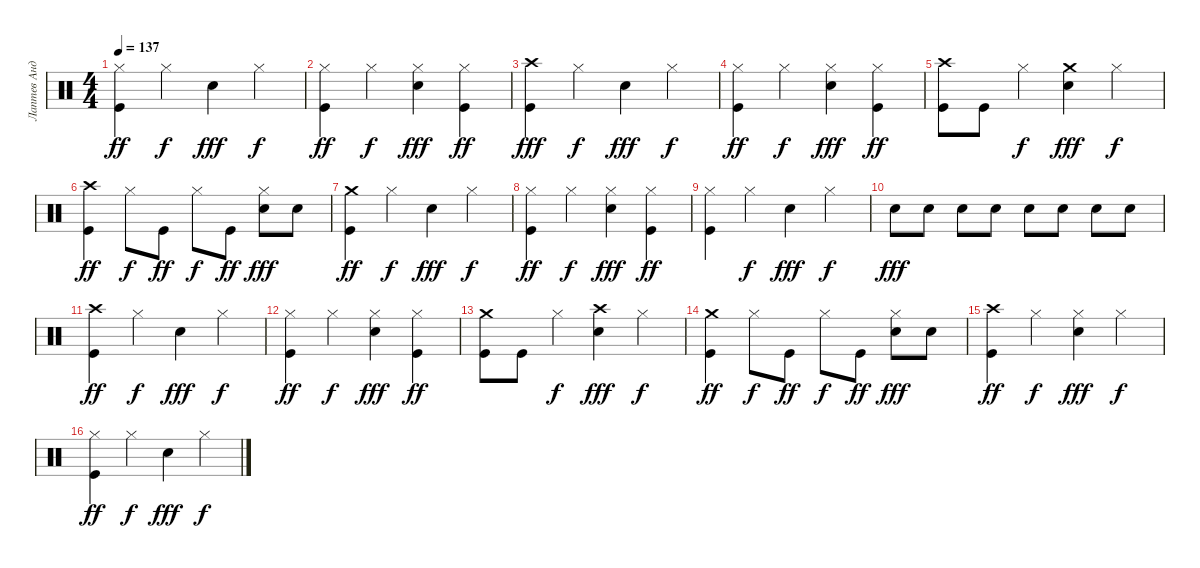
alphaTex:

\track ("Лаптев Андрей" "Лаптев Анд") {instrument percussion}
\staff {score}
\articulation defaults
\ts (4 4)
\tempo 137
\clef neutral
\ks c
("Hi-Hat (closed)" "Kick (hit)").4{dy ff} "Hi-Hat (closed)".4{dy f} "Electric Snare (hit)".4{dy fff} "Hi-Hat (closed)".4{dy f} |
("Kick (hit)" "Hi-Hat (closed)").4{dy ff} "Hi-Hat (closed)".4{dy f} ("Electric Snare (hit)" "Hi-Hat (closed)").4{dy fff} ("Kick (hit)" "Hi-Hat (closed)").4{dy ff} |
("Kick (hit)" "Crash high (hit)").4{dy fff} "Hi-Hat (closed)".4{dy f} "Electric Snare (hit)".4{dy fff} "Hi-Hat (closed)".4{dy f} |
("Kick (hit)" "Hi-Hat (closed)").4{dy ff} "Hi-Hat (closed)".4{dy f} ("Electric Snare (hit)" "Hi-Hat (closed)").4{dy fff} ("Kick (hit)" "Hi-Hat (closed)").4{dy ff} |
("Crash high (hit)" "Kick (hit)").8 "Kick (hit)".8 "Hi-Hat (closed)".4{dy f} ("Crash medium (hit)" "Electric Snare (hit)").4{dy fff} "Hi-Hat (closed)".4{dy f} |
("Crash high (hit)" "Kick (hit)").4{dy ff} "Hi-Hat (closed)".8{dy f} "Kick (hit)".8{dy ff} "Hi-Hat (closed)".8{dy f} "Kick (hit)".8{dy ff} ("Electric Snare (hit)" "Hi-Hat (closed)").8{dy fff} "Electric Snare (hit)".8 |
("Crash medium (hit)" "Kick (hit)").4{dy ff} "Hi-Hat (closed)".4{dy f} "Electric Snare (hit)".4{dy fff} "Hi-Hat (closed)".4{dy f} |
("Kick (hit)" "Hi-Hat (closed)").4{dy ff} "Hi-Hat (closed)".4{dy f} ("Electric Snare (hit)" "Hi-Hat (closed)").4{dy fff} ("Kick (hit)" "Hi-Hat (closed)").4{dy ff} |
("Hi-Hat (closed)" "Kick (hit)").4 "Hi-Hat (closed)".4{dy f} "Electric Snare (hit)".4{dy fff} "Hi-Hat (closed)".4{dy f} |
"Electric Snare (hit)".8{dy fff} "Electric Snare (hit)".8 "Electric Snare (hit)".8 "Electric Snare (hit)".8 "Electric Snare (hit)".8 "Electric Snare (hit)".8 "Electric Snare (hit)".8 "Electric Snare (hit)".8 |
("Crash high (hit)" "Kick (hit)").4{dy ff} "Hi-Hat (closed)".4{dy f} "Electric Snare (hit)".4{dy fff} "Hi-Hat (closed)".4{dy f} |
("Kick (hit)" "Hi-Hat (closed)").4{dy ff} "Hi-Hat (closed)".4{dy f} ("Electric Snare (hit)" "Hi-Hat (closed)").4{dy fff} ("Kick (hit)" "Hi-Hat (closed)").4{dy ff} |
("Crash medium (hit)" "Kick (hit)").8 "Kick (hit)".8 "Hi-Hat (closed)".4{dy f} ("Crash high (hit)" "Electric Snare (hit)").4{dy fff} "Hi-Hat (closed)".4{dy f} |
("Kick (hit)" "Crash medium (hit)").4{dy ff} "Hi-Hat (closed)".8{dy f} "Kick (hit)".8{dy ff} "Hi-Hat (closed)".8{dy f} "Kick (hit)".8{dy ff} ("Electric Snare (hit)" "Hi-Hat (closed)").8{dy fff} "Electric Snare (hit)".8 |
("Crash high (hit)" "Kick (hit)").4{dy ff} "Hi-Hat (closed)".4{dy f} ("Snare (hit) 2" "Hi-Hat (closed)").4{dy fff} "Hi-Hat (closed)".4{dy f} |
("Kick (hit)" "Hi-Hat (closed)").4{dy ff} "Hi-Hat (closed)".4{dy f} "Snare (hit) 2".4{dy fff} "Hi-Hat (closed)".4{dy f}
